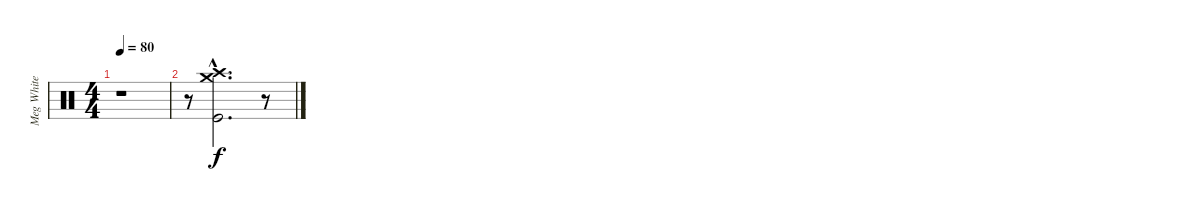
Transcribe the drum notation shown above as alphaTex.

\track ("Meg White" "Meg White") {instrument percussion}
\staff {score}
\articulation defaults
\ts (4 4)
\tempo 80
\clef neutral
\ks c
r.1{dy f} |
r.8 ("Kick (hit)"{hac} "Crash high (hit)"{hac} "Crash medium (hit)"{hac}).2{d} r.8
